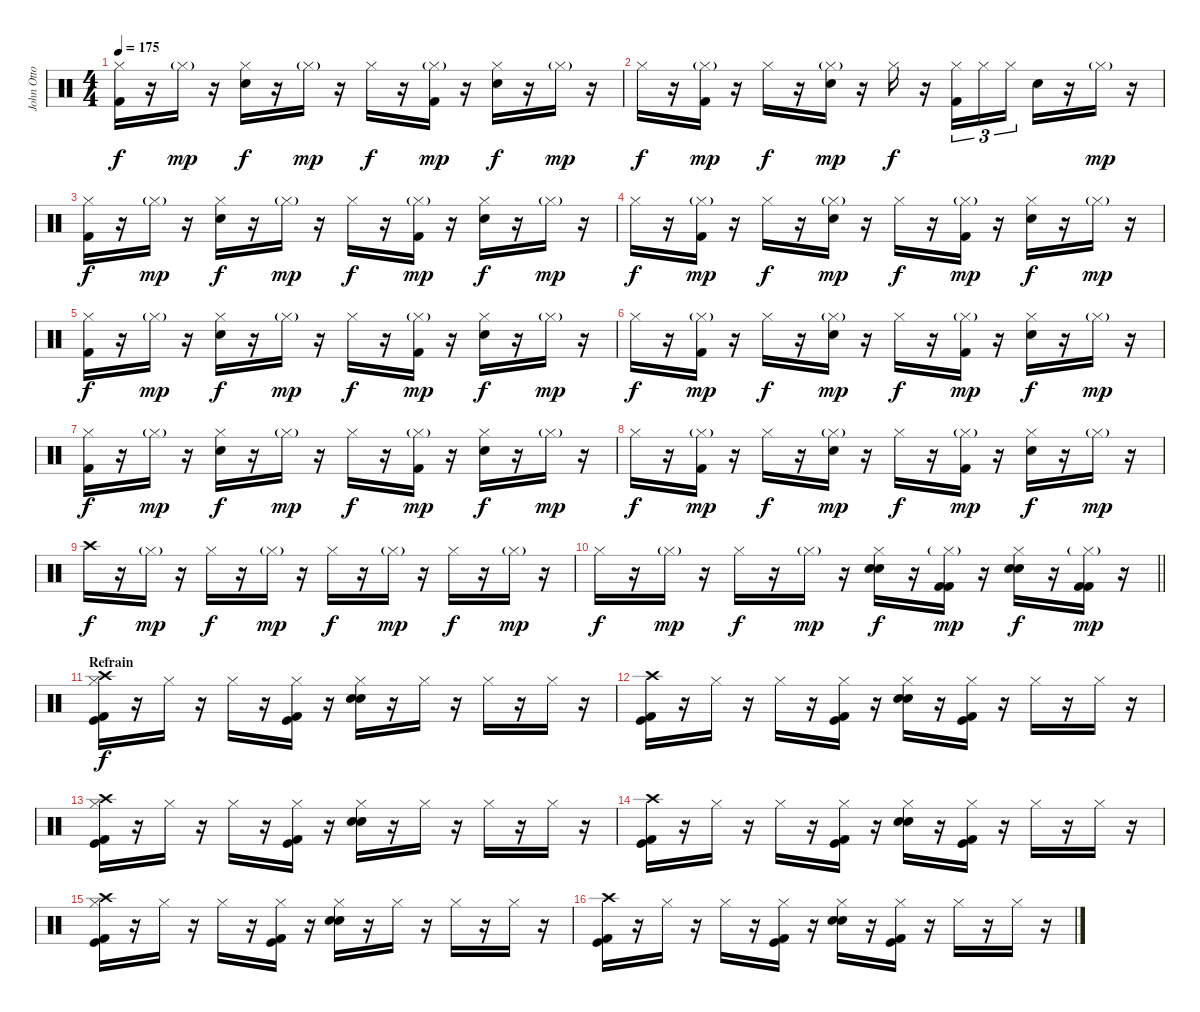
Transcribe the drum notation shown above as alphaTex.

\track ("John Otto" "John Otto") {instrument percussion}
\staff {score}
\articulation defaults
\ts (4 4)
\tempo 175
\clef neutral
\ks c
("Hi-Hat (closed)" "Kick (hit) 2").16{dy f} r.16 "Hi-Hat (closed)"{g}.16{dy mp} r.16 ("Hi-Hat (closed)" "Snare (hit) 2").16{dy f} r.16 "Hi-Hat (closed)"{g}.16{dy mp} r.16 "Hi-Hat (closed)".16{dy f} r.16 ("Hi-Hat (closed)"{g} "Kick (hit) 2").16{dy mp} r.16 ("Hi-Hat (closed)" "Snare (hit) 2").16{dy f} r.16 "Hi-Hat (closed)"{g}.16{dy mp} r.16 |
"Hi-Hat (closed)".16{dy f} r.16 ("Hi-Hat (closed)"{g} "Kick (hit) 2").16{dy mp} r.16 "Hi-Hat (closed)".16{dy f} r.16 ("Hi-Hat (closed)"{g} "Snare (hit) 2").16{dy mp} r.16 "Hi-Hat (closed)".16{dy f} r.16 ("Hi-Hat (closed)" "Kick (hit) 2").16{tu (3 2)} "Hi-Hat (closed)".16{tu (3 2)} "Hi-Hat (closed)".16{tu (3 2)} "Snare (hit) 2".16 r.16 "Hi-Hat (closed)"{g}.16{dy mp} r.16 |
("Hi-Hat (closed)" "Kick (hit) 2").16{dy f} r.16 "Hi-Hat (closed)"{g}.16{dy mp} r.16 ("Hi-Hat (closed)" "Snare (hit) 2").16{dy f} r.16 "Hi-Hat (closed)"{g}.16{dy mp} r.16 "Hi-Hat (closed)".16{dy f} r.16 ("Hi-Hat (closed)"{g} "Kick (hit) 2").16{dy mp} r.16 ("Hi-Hat (closed)" "Snare (hit) 2").16{dy f} r.16 "Hi-Hat (closed)"{g}.16{dy mp} r.16 |
"Hi-Hat (closed)".16{dy f} r.16 ("Hi-Hat (closed)"{g} "Kick (hit) 2").16{dy mp} r.16 "Hi-Hat (closed)".16{dy f} r.16 ("Hi-Hat (closed)"{g} "Snare (hit) 2").16{dy mp} r.16 "Hi-Hat (closed)".16{dy f} r.16 ("Hi-Hat (closed)"{g} "Kick (hit) 2").16{dy mp} r.16 ("Hi-Hat (closed)" "Snare (hit) 2").16{dy f} r.16 "Hi-Hat (closed)"{g}.16{dy mp} r.16 |
("Hi-Hat (closed)" "Kick (hit) 2").16{dy f} r.16 "Hi-Hat (closed)"{g}.16{dy mp} r.16 ("Hi-Hat (closed)" "Snare (hit) 2").16{dy f} r.16 "Hi-Hat (closed)"{g}.16{dy mp} r.16 "Hi-Hat (closed)".16{dy f} r.16 ("Hi-Hat (closed)"{g} "Kick (hit) 2").16{dy mp} r.16 ("Hi-Hat (closed)" "Snare (hit) 2").16{dy f} r.16 "Hi-Hat (closed)"{g}.16{dy mp} r.16 |
"Hi-Hat (closed)".16{dy f} r.16 ("Hi-Hat (closed)"{g} "Kick (hit) 2").16{dy mp} r.16 "Hi-Hat (closed)".16{dy f} r.16 ("Hi-Hat (closed)"{g} "Snare (hit) 2").16{dy mp} r.16 "Hi-Hat (closed)".16{dy f} r.16 ("Hi-Hat (closed)"{g} "Kick (hit) 2").16{dy mp} r.16 ("Hi-Hat (closed)" "Snare (hit) 2").16{dy f} r.16 "Hi-Hat (closed)"{g}.16{dy mp} r.16 |
("Hi-Hat (closed)" "Kick (hit) 2").16{dy f} r.16 "Hi-Hat (closed)"{g}.16{dy mp} r.16 ("Hi-Hat (closed)" "Snare (hit) 2").16{dy f} r.16 "Hi-Hat (closed)"{g}.16{dy mp} r.16 "Hi-Hat (closed)".16{dy f} r.16 ("Hi-Hat (closed)"{g} "Kick (hit) 2").16{dy mp} r.16 ("Hi-Hat (closed)" "Snare (hit) 2").16{dy f} r.16 "Hi-Hat (closed)"{g}.16{dy mp} r.16 |
"Hi-Hat (closed)".16{dy f} r.16 ("Hi-Hat (closed)"{g} "Kick (hit) 2").16{dy mp} r.16 "Hi-Hat (closed)".16{dy f} r.16 ("Hi-Hat (closed)"{g} "Snare (hit) 2").16{dy mp} r.16 "Hi-Hat (closed)".16{dy f} r.16 ("Hi-Hat (closed)"{g} "Kick (hit) 2").16{dy mp} r.16 ("Hi-Hat (closed)" "Snare (hit) 2").16{dy f} r.16 "Hi-Hat (closed)"{g}.16{dy mp} r.16 |
"Crash high (hit)".16{dy f} r.16 "Hi-Hat (closed)"{g}.16{dy mp} r.16 "Hi-Hat (closed)".16{dy f} r.16 "Hi-Hat (closed)"{g}.16{dy mp} r.16 "Hi-Hat (closed)".16{dy f} r.16 "Hi-Hat (closed)"{g}.16{dy mp} r.16 "Hi-Hat (closed)".16{dy f} r.16 "Hi-Hat (closed)"{g}.16{dy mp} r.16 |
\barLineRight lightlight "Hi-Hat (closed)".16{dy f}
r.16 "Hi-Hat (closed)"{g}.16{dy mp} r.16 "Hi-Hat (closed)".16{dy f} r.16 "Hi-Hat (closed)"{g}.16{dy mp} r.16 ("Hi-Hat (closed)" "Electric Snare (hit)" "Snare (hit) 2").16{dy f} r.16 ("Hi-Hat (closed)"{g} "Kick (hit) 2" "Kick (hit) 2").16{dy mp} r.16 ("Hi-Hat (closed)" "Electric Snare (hit)" "Snare (hit) 2").16{dy f} r.16 ("Hi-Hat (closed)"{g} "Kick (hit) 2" "Kick (hit) 2").16{dy mp} r.16 |
\section ("" "Refrain")
("Crash high (hit)" "Hi-Hat (closed)" "Kick (hit) 2" "Kick (hit)").16{dy f} r.16 "Hi-Hat (closed)".16 r.16 "Hi-Hat (closed)".16 r.16 ("Hi-Hat (closed)" "Kick (hit) 2" "Kick (hit)").16 r.16 ("Hi-Hat (closed)" "Electric Snare (hit)" "Snare (hit) 2").16 r.16 "Hi-Hat (closed)".16 r.16 "Hi-Hat (closed)".16 r.16 "Hi-Hat (closed)".16 r.16 |
("Crash high (hit)" "Kick (hit) 2" "Kick (hit)").16 r.16 "Hi-Hat (closed)".16 r.16 "Hi-Hat (closed)".16 r.16 ("Hi-Hat (closed)" "Kick (hit) 2" "Kick (hit)").16 r.16 ("Hi-Hat (closed)" "Electric Snare (hit)" "Snare (hit) 2").16 r.16 ("Hi-Hat (closed)" "Kick (hit) 2" "Kick (hit)").16 r.16 "Hi-Hat (closed)".16 r.16 "Hi-Hat (closed)".16 r.16 |
("Crash high (hit)" "Hi-Hat (closed)" "Kick (hit) 2" "Kick (hit)").16 r.16 "Hi-Hat (closed)".16 r.16 "Hi-Hat (closed)".16 r.16 ("Hi-Hat (closed)" "Kick (hit) 2" "Kick (hit)").16 r.16 ("Hi-Hat (closed)" "Electric Snare (hit)" "Snare (hit) 2").16 r.16 "Hi-Hat (closed)".16 r.16 "Hi-Hat (closed)".16 r.16 "Hi-Hat (closed)".16 r.16 |
("Crash high (hit)" "Kick (hit) 2" "Kick (hit)").16 r.16 "Hi-Hat (closed)".16 r.16 "Hi-Hat (closed)".16 r.16 ("Hi-Hat (closed)" "Kick (hit) 2" "Kick (hit)").16 r.16 ("Hi-Hat (closed)" "Electric Snare (hit)" "Snare (hit) 2").16 r.16 ("Hi-Hat (closed)" "Kick (hit) 2" "Kick (hit)").16 r.16 "Hi-Hat (closed)".16 r.16 "Hi-Hat (closed)".16 r.16 |
("Crash high (hit)" "Hi-Hat (closed)" "Kick (hit) 2" "Kick (hit)").16 r.16 "Hi-Hat (closed)".16 r.16 "Hi-Hat (closed)".16 r.16 ("Hi-Hat (closed)" "Kick (hit) 2" "Kick (hit)").16 r.16 ("Hi-Hat (closed)" "Electric Snare (hit)" "Snare (hit) 2").16 r.16 "Hi-Hat (closed)".16 r.16 "Hi-Hat (closed)".16 r.16 "Hi-Hat (closed)".16 r.16 |
("Crash high (hit)" "Kick (hit) 2" "Kick (hit)").16 r.16 "Hi-Hat (closed)".16 r.16 "Hi-Hat (closed)".16 r.16 ("Hi-Hat (closed)" "Kick (hit) 2" "Kick (hit)").16 r.16 ("Hi-Hat (closed)" "Electric Snare (hit)" "Snare (hit) 2").16 r.16 ("Hi-Hat (closed)" "Kick (hit) 2" "Kick (hit)").16 r.16 "Hi-Hat (closed)".16 r.16 "Hi-Hat (closed)".16 r.16
